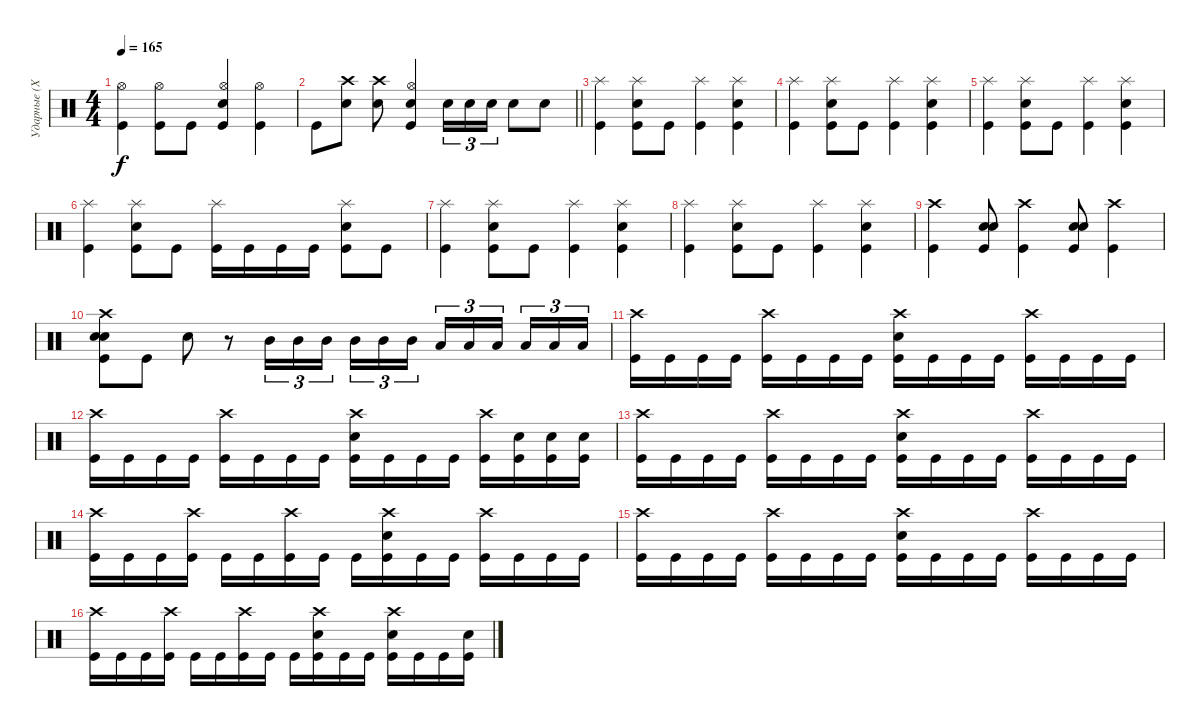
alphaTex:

\track ("Ударные (Хеллхаммер)" "Ударные (Х") {instrument percussion}
\staff {score}
\articulation defaults
\ts (4 4)
\tempo 165
\clef neutral
\ks c
("Kick (hit)" "Hi-Hat (open)").4{dy f} ("Hi-Hat (open)" "Kick (hit)").8 "Kick (hit)".8 ("Electric Snare (hit)" "Hi-Hat (open)" "Kick (hit)").4 ("Kick (hit)" "Hi-Hat (open)").4 |
\barLineRight lightlight "Kick (hit)".8
("Electric Snare (hit)" "Crash high (hit)").8 ("Electric Snare (hit)" "Crash high (hit)").8 ("Electric Snare (hit)" "Kick (hit)" "Hi-Hat (open)").4 "Electric Snare (hit)".16{tu (3 2)} "Electric Snare (hit)".16{tu (3 2)} "Electric Snare (hit)".16{tu (3 2)} "Electric Snare (hit)".8 "Electric Snare (hit)".8 |
("Kick (hit)" "Splash (hit)").4 ("Kick (hit)" "Splash (hit)" "Electric Snare (hit)").8 "Kick (hit)".8 ("Kick (hit)" "Splash (hit)").4 ("Kick (hit)" "Splash (hit)" "Electric Snare (hit)").4 |
("Kick (hit)" "Splash (hit)").4 ("Kick (hit)" "Splash (hit)" "Electric Snare (hit)").8 "Kick (hit)".8 ("Kick (hit)" "Splash (hit)").4 ("Kick (hit)" "Splash (hit)" "Electric Snare (hit)").4 |
("Kick (hit)" "Splash (hit)").4 ("Kick (hit)" "Splash (hit)" "Electric Snare (hit)").8 "Kick (hit)".8 ("Kick (hit)" "Splash (hit)").4 ("Kick (hit)" "Splash (hit)" "Electric Snare (hit)").4 |
("Kick (hit)" "Splash (hit)").4 ("Kick (hit)" "Splash (hit)" "Electric Snare (hit)").8 "Kick (hit)".8 ("Kick (hit)" "Splash (hit)").16 "Kick (hit)".16 "Kick (hit)".16 "Kick (hit)".16 ("Kick (hit)" "Splash (hit)" "Electric Snare (hit)").8 "Kick (hit)".8 |
("Kick (hit)" "Splash (hit)").4 ("Kick (hit)" "Splash (hit)" "Electric Snare (hit)").8 "Kick (hit)".8 ("Kick (hit)" "Splash (hit)").4 ("Kick (hit)" "Splash (hit)" "Electric Snare (hit)").4 |
("Kick (hit)" "Splash (hit)").4 ("Kick (hit)" "Splash (hit)" "Electric Snare (hit)").8 "Kick (hit)".8 ("Kick (hit)" "Splash (hit)").4 ("Kick (hit)" "Splash (hit)" "Electric Snare (hit)").4 |
("Kick (hit)" "Crash high (hit)").4 ("Kick (hit)" "Electric Snare (hit)" "Electric Snare (hit)").8 ("Kick (hit)" "Crash high (hit)").4 ("Kick (hit)" "Electric Snare (hit)" "Electric Snare (hit)").8 ("Kick (hit)" "Crash high (hit)").4 |
("Kick (hit)" "Crash high (hit)" "Electric Snare (hit)" "Electric Snare (hit)").8 "Kick (hit)".8 "Electric Snare (hit)".8 r.8 "Mid Tom (hit)".16{tu (3 2)} "Mid Tom (hit)".16{tu (3 2)} "Mid Tom (hit)".16{tu (3 2) beam splitsecondary} "Mid Tom (hit)".16{tu (3 2)} "Mid Tom (hit)".16{tu (3 2)} "Mid Tom (hit)".16{tu (3 2)} "Low Tom (hit)".16{tu (3 2)} "Low Tom (hit)".16{tu (3 2)} "Low Tom (hit)".16{tu (3 2) beam splitsecondary} "Low Tom (hit)".16{tu (3 2)} "Low Tom (hit)".16{tu (3 2)} "Low Tom (hit)".16{tu (3 2)} |
("Kick (hit)" "Crash high (hit)").16 "Kick (hit)".16 "Kick (hit)".16 "Kick (hit)".16 ("Kick (hit)" "Crash high (hit)").16 "Kick (hit)".16 "Kick (hit)".16 "Kick (hit)".16 ("Kick (hit)" "Crash high (hit)" "Electric Snare (hit)").16 "Kick (hit)".16 "Kick (hit)".16 "Kick (hit)".16 ("Kick (hit)" "Crash high (hit)").16 "Kick (hit)".16 "Kick (hit)".16 "Kick (hit)".16 |
("Kick (hit)" "Crash high (hit)").16 "Kick (hit)".16 "Kick (hit)".16 "Kick (hit)".16 ("Kick (hit)" "Crash high (hit)").16 "Kick (hit)".16 "Kick (hit)".16 "Kick (hit)".16 ("Kick (hit)" "Crash high (hit)" "Electric Snare (hit)").16 "Kick (hit)".16 "Kick (hit)".16 "Kick (hit)".16 ("Kick (hit)" "Crash high (hit)").16 ("Kick (hit)" "Electric Snare (hit)").16 ("Kick (hit)" "Electric Snare (hit)").16 ("Kick (hit)" "Electric Snare (hit)").16 |
("Kick (hit)" "Crash high (hit)").16 "Kick (hit)".16 "Kick (hit)".16 "Kick (hit)".16 ("Kick (hit)" "Crash high (hit)").16 "Kick (hit)".16 "Kick (hit)".16 "Kick (hit)".16 ("Kick (hit)" "Crash high (hit)" "Electric Snare (hit)").16 "Kick (hit)".16 "Kick (hit)".16 "Kick (hit)".16 ("Kick (hit)" "Crash high (hit)").16 "Kick (hit)".16 "Kick (hit)".16 "Kick (hit)".16 |
("Kick (hit)" "Crash high (hit)").16 "Kick (hit)".16 "Kick (hit)".16 ("Kick (hit)" "Crash high (hit)").16 "Kick (hit)".16 "Kick (hit)".16 ("Kick (hit)" "Crash high (hit)").16 "Kick (hit)".16 "Kick (hit)".16 ("Crash high (hit)" "Kick (hit)" "Electric Snare (hit)").16 "Kick (hit)".16 "Kick (hit)".16 ("Kick (hit)" "Crash high (hit)").16 "Kick (hit)".16 "Kick (hit)".16 "Kick (hit)".16 |
("Kick (hit)" "Crash high (hit)").16 "Kick (hit)".16 "Kick (hit)".16 "Kick (hit)".16 ("Kick (hit)" "Crash high (hit)").16 "Kick (hit)".16 "Kick (hit)".16 "Kick (hit)".16 ("Kick (hit)" "Crash high (hit)" "Electric Snare (hit)").16 "Kick (hit)".16 "Kick (hit)".16 "Kick (hit)".16 ("Kick (hit)" "Crash high (hit)").16 "Kick (hit)".16 "Kick (hit)".16 "Kick (hit)".16 |
("Kick (hit)" "Crash high (hit)").16 "Kick (hit)".16 "Kick (hit)".16 ("Kick (hit)" "Crash high (hit)").16 "Kick (hit)".16 "Kick (hit)".16 ("Kick (hit)" "Crash high (hit)").16 "Kick (hit)".16 "Kick (hit)".16 ("Crash high (hit)" "Kick (hit)" "Electric Snare (hit)").16 "Kick (hit)".16 "Kick (hit)".16 ("Kick (hit)" "Crash high (hit)" "Electric Snare (hit)").16 "Kick (hit)".16 "Kick (hit)".16 ("Kick (hit)" "Electric Snare (hit)").16
